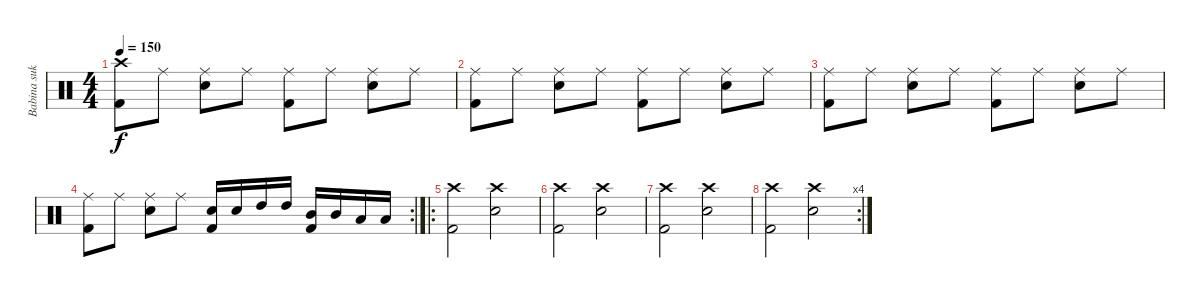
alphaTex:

\track ("Babina sukrvica - Dragan" "Babina suk") {instrument percussion}
\staff {score}
\articulation defaults
\ts (4 4)
\tempo 150
\clef neutral
\ks c
("Crash high (hit)" "Kick (hit) 2").8{dy f} "Ride (middle)".8 ("Ride (middle)" "Electric Snare (hit)").8 "Ride (middle)".8 ("Ride (middle)" "Kick (hit) 2").8 "Ride (middle)".8 ("Ride (middle)" "Electric Snare (hit)").8 "Ride (middle)".8 |
("Ride (middle)" "Kick (hit) 2").8 "Ride (middle)".8 ("Ride (middle)" "Electric Snare (hit)").8 "Ride (middle)".8 ("Ride (middle)" "Kick (hit) 2").8 "Ride (middle)".8 ("Ride (middle)" "Electric Snare (hit)").8 "Ride (middle)".8 |
("Ride (middle)" "Kick (hit) 2").8 "Ride (middle)".8 ("Ride (middle)" "Electric Snare (hit)").8 "Ride (middle)".8 ("Ride (middle)" "Kick (hit) 2").8 "Ride (middle)".8 ("Ride (middle)" "Electric Snare (hit)").8 "Ride (middle)".8 |
\rc 2
("Ride (middle)" "Kick (hit) 2").8 "Ride (middle)".8 ("Ride (middle)" "Electric Snare (hit)").8 "Ride (middle)".8 ("Kick (hit) 2" "Electric Snare (hit)").16 "Electric Snare (hit)".16 "High Tom (hit)".16 "High Tom (hit)".16 ("Kick (hit) 2" "Mid Tom (hit)").16 "Mid Tom (hit)".16 "Low Tom (hit)".16 "Low Tom (hit)".16 |
\ro
("Crash high (hit)" "Kick (hit) 2").2 ("Crash high (hit)" "Electric Snare (hit)").2 |
("Crash high (hit)" "Kick (hit) 2").2 ("Crash high (hit)" "Electric Snare (hit)").2 |
("Crash high (hit)" "Kick (hit) 2").2 ("Crash high (hit)" "Electric Snare (hit)").2 |
\rc 4
("Crash high (hit)" "Kick (hit) 2").2 ("Crash high (hit)" "Electric Snare (hit)").2
